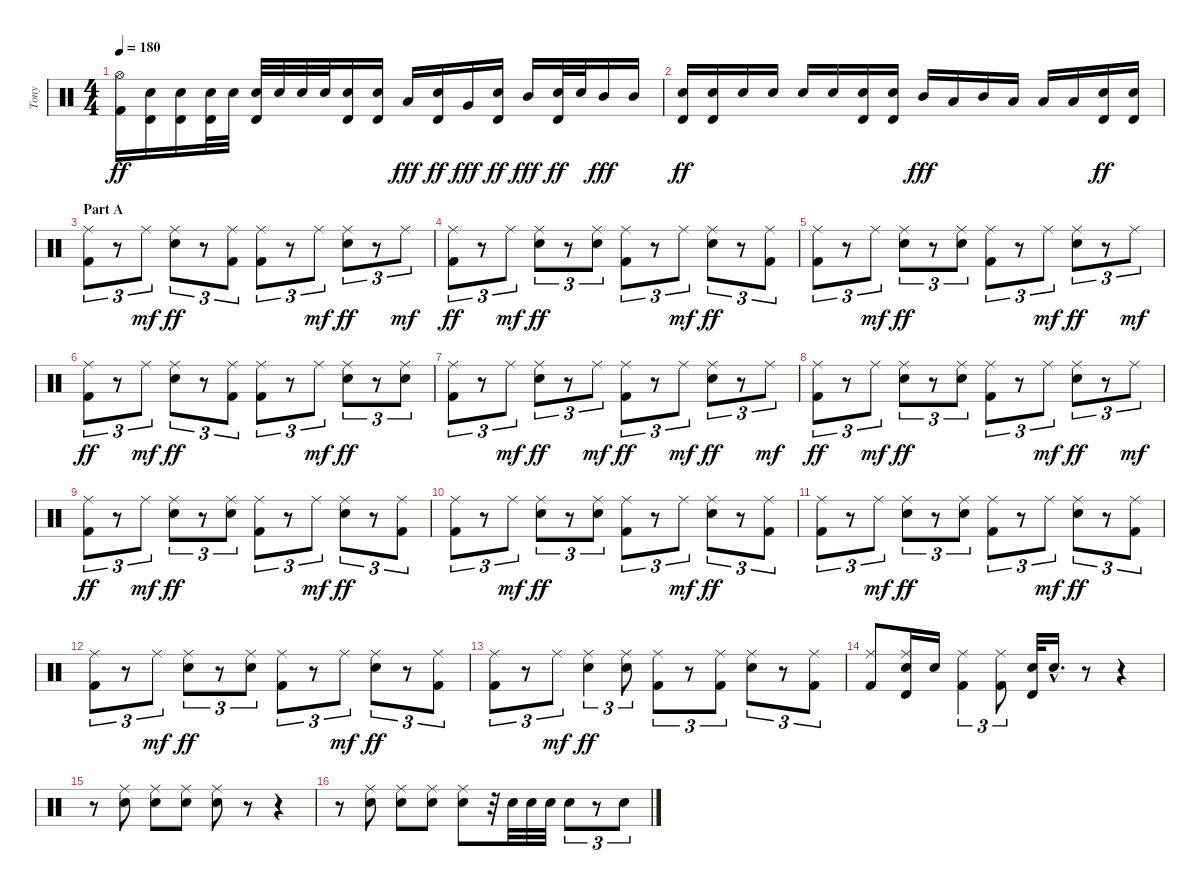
\track ("Tony" "Tony") {instrument percussion}
\staff {score}
\articulation defaults
\ts (4 4)
\tempo 180
\clef neutral
\ks c
("Hi-Hat (open)" "Kick (hit) 2").16{dy ff} ("Timbale high (hit)" "Electric Snare (hit)").16 ("Timbale high (hit)" "Electric Snare (hit)").16 ("Timbale high (hit)" "Electric Snare (hit)").32 "Electric Snare (hit)".32 ("Timbale high (hit)" "Electric Snare (hit)").32 "Electric Snare (hit)".32 "Electric Snare (hit)".32 "Electric Snare (hit)".32 ("Timbale high (hit)" "Electric Snare (hit)").16 ("Timbale high (hit)" "Electric Snare (hit)").16 "Low Tom (hit)".16{dy fff} ("Timbale high (hit)" "Electric Snare (hit)").16{dy ff} "Very Low Tom (hit)".16{dy fff} ("Timbale high (hit)" "Electric Snare (hit)").16{dy ff} "Mid Tom (hit)".16{dy fff} ("Timbale high (hit)" "Electric Snare (hit)").32{dy ff} "Electric Snare (hit)".32 "Mid Tom (hit)".16{dy fff} "Mid Tom (hit)".16 |
("Timbale high (hit)" "Electric Snare (hit)").16{dy ff} ("Timbale high (hit)" "Electric Snare (hit)").16 "Electric Snare (hit)".16 "Electric Snare (hit)".16 "Electric Snare (hit)".16 "Electric Snare (hit)".16 ("Timbale high (hit)" "Electric Snare (hit)").16 ("Timbale high (hit)" "Electric Snare (hit)").16 "Mid Tom (hit)".16{dy fff} "Low Tom (hit)".16 "Mid Tom (hit)".16 "Low Tom (hit)".16 "Low Floor Tom (hit)".16 "Low Floor Tom (hit)".16 ("Timbale high (hit)" "Electric Snare (hit)").16{dy ff} ("Timbale high (hit)" "Electric Snare (hit)").16 |
\section ("" "Part A")
("Ride (middle)" "Kick (hit) 2").8{tu (3 2)} r.8{tu (3 2)} "Ride (middle)".8{tu (3 2) dy mf} ("Ride (middle)" "Electric Snare (hit)").8{tu (3 2) dy ff} r.8{tu (3 2)} ("Ride (middle)" "Kick (hit) 2").8{tu (3 2)} ("Ride (middle)" "Kick (hit) 2").8{tu (3 2)} r.8{tu (3 2)} "Ride (middle)".8{tu (3 2) dy mf} ("Ride (middle)" "Electric Snare (hit)").8{tu (3 2) dy ff} r.8{tu (3 2)} "Ride (middle)".8{tu (3 2) dy mf} |
("Ride (middle)" "Kick (hit) 2").8{tu (3 2) dy ff} r.8{tu (3 2)} "Ride (middle)".8{tu (3 2) dy mf} ("Ride (middle)" "Electric Snare (hit)").8{tu (3 2) dy ff} r.8{tu (3 2)} ("Ride (middle)" "Electric Snare (hit)").8{tu (3 2)} ("Ride (middle)" "Kick (hit) 2").8{tu (3 2)} r.8{tu (3 2)} "Ride (middle)".8{tu (3 2) dy mf} ("Ride (middle)" "Electric Snare (hit)").8{tu (3 2) dy ff} r.8{tu (3 2)} ("Ride (middle)" "Kick (hit) 2").8{tu (3 2)} |
("Ride (middle)" "Kick (hit) 2").8{tu (3 2)} r.8{tu (3 2)} "Ride (middle)".8{tu (3 2) dy mf} ("Ride (middle)" "Electric Snare (hit)").8{tu (3 2) dy ff} r.8{tu (3 2)} ("Ride (middle)" "Electric Snare (hit)").8{tu (3 2)} ("Ride (middle)" "Kick (hit) 2").8{tu (3 2)} r.8{tu (3 2)} "Ride (middle)".8{tu (3 2) dy mf} ("Ride (middle)" "Electric Snare (hit)").8{tu (3 2) dy ff} r.8{tu (3 2)} "Ride (middle)".8{tu (3 2) dy mf} |
("Ride (middle)" "Kick (hit) 2").8{tu (3 2) dy ff} r.8{tu (3 2)} "Ride (middle)".8{tu (3 2) dy mf} ("Ride (middle)" "Electric Snare (hit)").8{tu (3 2) dy ff} r.8{tu (3 2)} ("Ride (middle)" "Kick (hit) 2").8{tu (3 2)} ("Ride (middle)" "Kick (hit) 2").8{tu (3 2)} r.8{tu (3 2)} "Ride (middle)".8{tu (3 2) dy mf} ("Ride (middle)" "Electric Snare (hit)").8{tu (3 2) dy ff} r.8{tu (3 2)} ("Ride (middle)" "Electric Snare (hit)").8{tu (3 2)} |
("Ride (middle)" "Kick (hit) 2").8{tu (3 2)} r.8{tu (3 2)} "Ride (middle)".8{tu (3 2) dy mf} ("Ride (middle)" "Electric Snare (hit)").8{tu (3 2) dy ff} r.8{tu (3 2)} "Ride (middle)".8{tu (3 2) dy mf} ("Ride (middle)" "Kick (hit) 2").8{tu (3 2) dy ff} r.8{tu (3 2)} "Ride (middle)".8{tu (3 2) dy mf} ("Ride (middle)" "Electric Snare (hit)").8{tu (3 2) dy ff} r.8{tu (3 2)} "Ride (middle)".8{tu (3 2) dy mf} |
("Ride (middle)" "Kick (hit) 2").8{tu (3 2) dy ff} r.8{tu (3 2)} "Ride (middle)".8{tu (3 2) dy mf} ("Ride (middle)" "Electric Snare (hit)").8{tu (3 2) dy ff} r.8{tu (3 2)} ("Ride (middle)" "Electric Snare (hit)").8{tu (3 2)} ("Ride (middle)" "Kick (hit) 2").8{tu (3 2)} r.8{tu (3 2)} "Ride (middle)".8{tu (3 2) dy mf} ("Ride (middle)" "Electric Snare (hit)").8{tu (3 2) dy ff} r.8{tu (3 2)} "Ride (middle)".8{tu (3 2) dy mf} |
("Ride (middle)" "Kick (hit) 2").8{tu (3 2) dy ff} r.8{tu (3 2)} "Ride (middle)".8{tu (3 2) dy mf} ("Ride (middle)" "Electric Snare (hit)").8{tu (3 2) dy ff} r.8{tu (3 2)} ("Ride (middle)" "Electric Snare (hit)").8{tu (3 2)} ("Ride (middle)" "Kick (hit) 2").8{tu (3 2)} r.8{tu (3 2)} "Ride (middle)".8{tu (3 2) dy mf} ("Ride (middle)" "Electric Snare (hit)").8{tu (3 2) dy ff} r.8{tu (3 2)} ("Ride (middle)" "Kick (hit) 2").8{tu (3 2)} |
("Ride (middle)" "Kick (hit) 2").8{tu (3 2)} r.8{tu (3 2)} "Ride (middle)".8{tu (3 2) dy mf} ("Ride (middle)" "Electric Snare (hit)").8{tu (3 2) dy ff} r.8{tu (3 2)} ("Ride (middle)" "Electric Snare (hit)").8{tu (3 2)} ("Ride (middle)" "Kick (hit) 2").8{tu (3 2)} r.8{tu (3 2)} "Ride (middle)".8{tu (3 2) dy mf} ("Ride (middle)" "Electric Snare (hit)").8{tu (3 2) dy ff} r.8{tu (3 2)} ("Ride (middle)" "Kick (hit) 2").8{tu (3 2)} |
("Ride (middle)" "Kick (hit) 2").8{tu (3 2)} r.8{tu (3 2)} "Ride (middle)".8{tu (3 2) dy mf} ("Ride (middle)" "Electric Snare (hit)").8{tu (3 2) dy ff} r.8{tu (3 2)} ("Ride (middle)" "Electric Snare (hit)").8{tu (3 2)} ("Ride (middle)" "Kick (hit) 2").8{tu (3 2)} r.8{tu (3 2)} "Ride (middle)".8{tu (3 2) dy mf} ("Ride (middle)" "Electric Snare (hit)").8{tu (3 2) dy ff} r.8{tu (3 2)} ("Ride (middle)" "Kick (hit) 2").8{tu (3 2)} |
("Ride (middle)" "Kick (hit) 2").8{tu (3 2)} r.8{tu (3 2)} "Ride (middle)".8{tu (3 2) dy mf} ("Ride (middle)" "Electric Snare (hit)").8{tu (3 2) dy ff} r.8{tu (3 2)} ("Ride (middle)" "Electric Snare (hit)").8{tu (3 2)} ("Ride (middle)" "Kick (hit) 2").8{tu (3 2)} r.8{tu (3 2)} "Ride (middle)".8{tu (3 2) dy mf} ("Ride (middle)" "Electric Snare (hit)").8{tu (3 2) dy ff} r.8{tu (3 2)} ("Ride (middle)" "Kick (hit) 2").8{tu (3 2)} |
("Ride (middle)" "Kick (hit) 2").8{tu (3 2)} r.8{tu (3 2)} "Ride (middle)".8{tu (3 2) dy mf} ("Ride (middle)" "Electric Snare (hit)").4{tu (3 2) dy ff} ("Ride (middle)" "Electric Snare (hit)").8{tu (3 2)} ("Ride (middle)" "Kick (hit) 2").8{tu (3 2)} r.8{tu (3 2)} ("Ride (middle)" "Kick (hit) 2").8{tu (3 2)} ("Ride (middle)" "Electric Snare (hit)").8{tu (3 2)} r.8{tu (3 2)} ("Ride (middle)" "Kick (hit) 2").8{tu (3 2)} |
("Ride (middle)" "Kick (hit) 2").8 ("Timbale high (hit)" "Ride (middle)" "Electric Snare (hit)").16 "Electric Snare (hit)".16 ("Ride (middle)" "Kick (hit) 2").4{tu (3 2)} ("Ride (middle)" "Kick (hit) 2").8{tu (3 2)} ("Timbale high (hit)" "Electric Snare (hit)").32 "Electric Snare (hit)"{hac}.16{d} r.8 r.4 |
r.8 ("Ride (middle)" "Electric Snare (hit)").8 ("Ride (middle)" "Electric Snare (hit)").8 ("Ride (middle)" "Electric Snare (hit)").8 ("Ride (middle)" "Electric Snare (hit)").8 r.8 r.4 |
r.8 ("Ride (middle)" "Electric Snare (hit)").8 ("Ride (middle)" "Electric Snare (hit)").8 ("Ride (middle)" "Electric Snare (hit)").8 ("Ride (middle)" "Electric Snare (hit)").8 r.32 "Electric Snare (hit)".32 "Electric Snare (hit)".32 "Electric Snare (hit)".32 "Electric Snare (hit)".8{tu (3 2)} r.8{tu (3 2)} "Electric Snare (hit)".8{tu (3 2)}
